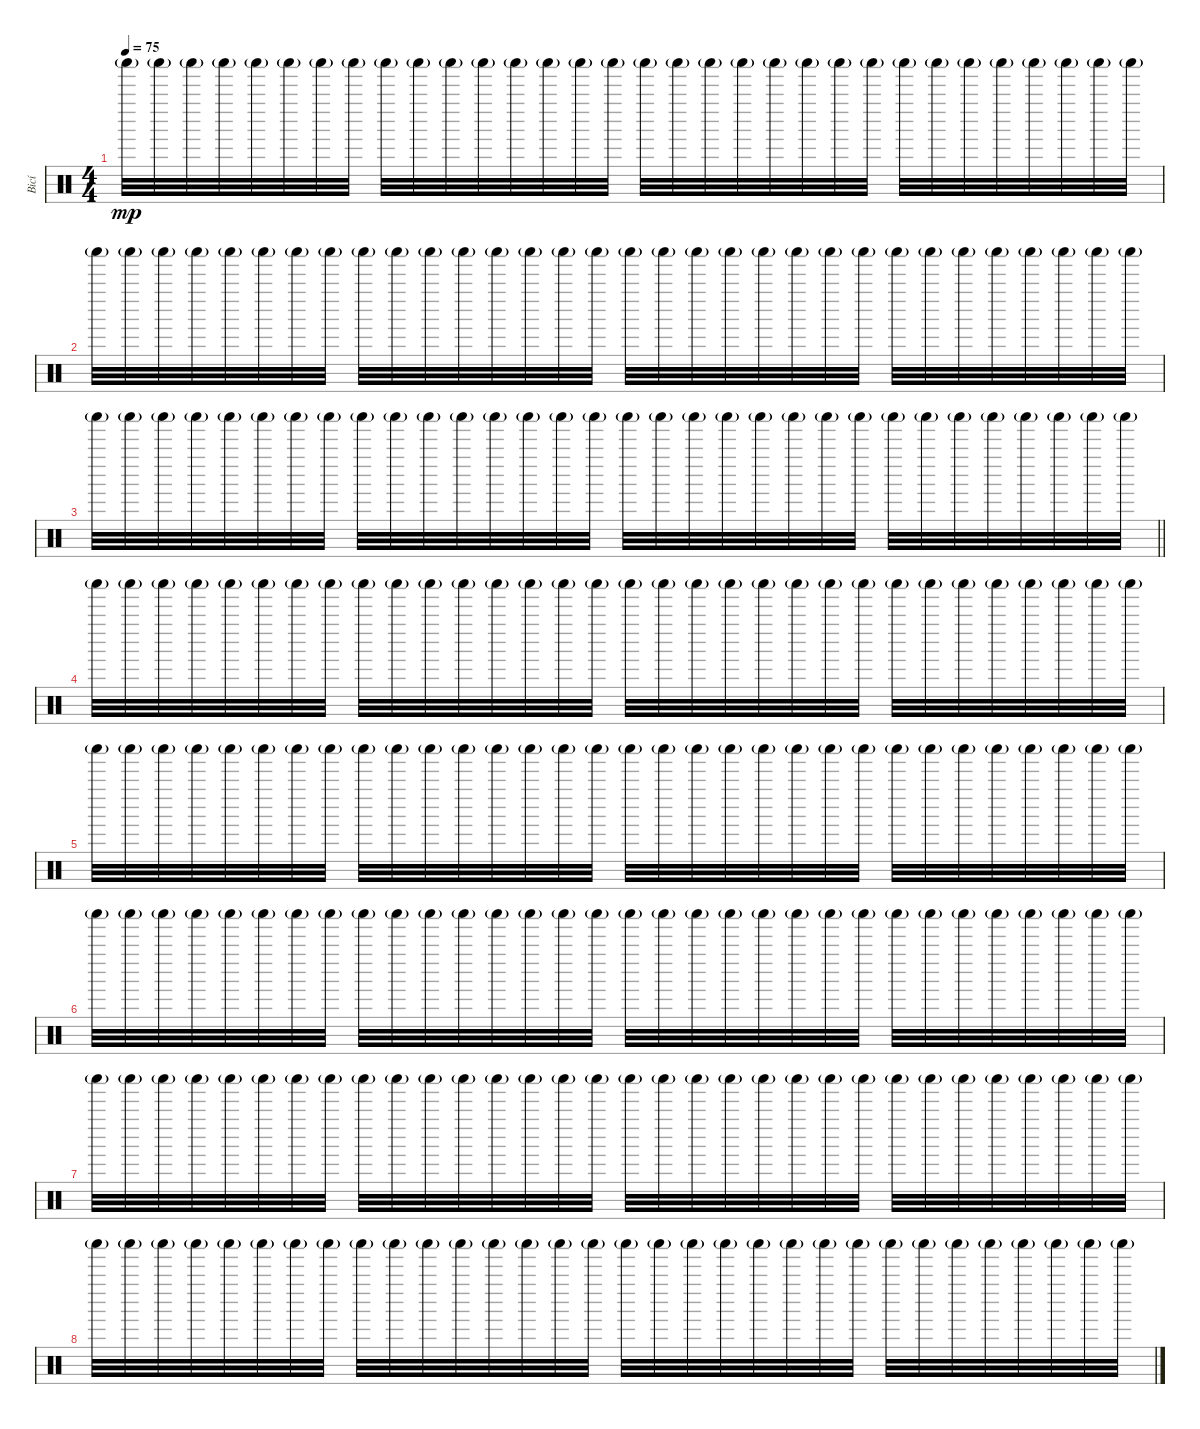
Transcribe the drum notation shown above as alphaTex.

\track ("Bicí" "Bicí") {instrument percussion}
\staff {score}
\articulation defaults
\ts (4 4)
\tempo 75
\clef neutral
\ks c "Shaker (hit)"{g}.32{dy mp} "Shaker (hit)"{g}.32 "Shaker (hit)"{g}.32 "Shaker (hit)"{g}.32 "Shaker (hit)"{g}.32 "Shaker (hit)"{g}.32 "Shaker (hit)"{g}.32 "Shaker (hit)"{g}.32 "Shaker (hit)"{g}.32 "Shaker (hit)"{g}.32 "Shaker (hit)"{g}.32 "Shaker (hit)"{g}.32 "Shaker (hit)"{g}.32 "Shaker (hit)"{g}.32 "Shaker (hit)"{g}.32 "Shaker (hit)"{g}.32 "Shaker (hit)"{g}.32 "Shaker (hit)"{g}.32 "Shaker (hit)"{g}.32 "Shaker (hit)"{g}.32 "Shaker (hit)"{g}.32 "Shaker (hit)"{g}.32 "Shaker (hit)"{g}.32 "Shaker (hit)"{g}.32 "Shaker (hit)"{g}.32 "Shaker (hit)"{g}.32 "Shaker (hit)"{g}.32 "Shaker (hit)"{g}.32 "Shaker (hit)"{g}.32 "Shaker (hit)"{g}.32 "Shaker (hit)"{g}.32 "Shaker (hit)"{g}.32
|
"Shaker (hit)"{g}.32 "Shaker (hit)"{g}.32 "Shaker (hit)"{g}.32 "Shaker (hit)"{g}.32 "Shaker (hit)"{g}.32 "Shaker (hit)"{g}.32 "Shaker (hit)"{g}.32 "Shaker (hit)"{g}.32 "Shaker (hit)"{g}.32 "Shaker (hit)"{g}.32 "Shaker (hit)"{g}.32 "Shaker (hit)"{g}.32 "Shaker (hit)"{g}.32 "Shaker (hit)"{g}.32 "Shaker (hit)"{g}.32 "Shaker (hit)"{g}.32 "Shaker (hit)"{g}.32 "Shaker (hit)"{g}.32 "Shaker (hit)"{g}.32 "Shaker (hit)"{g}.32 "Shaker (hit)"{g}.32 "Shaker (hit)"{g}.32 "Shaker (hit)"{g}.32 "Shaker (hit)"{g}.32 "Shaker (hit)"{g}.32 "Shaker (hit)"{g}.32 "Shaker (hit)"{g}.32 "Shaker (hit)"{g}.32 "Shaker (hit)"{g}.32 "Shaker (hit)"{g}.32 "Shaker (hit)"{g}.32 "Shaker (hit)"{g}.32 |
\barLineRight lightlight "Shaker (hit)"{g}.32 "Shaker (hit)"{g}.32 "Shaker (hit)"{g}.32 "Shaker (hit)"{g}.32 "Shaker (hit)"{g}.32 "Shaker (hit)"{g}.32 "Shaker (hit)"{g}.32 "Shaker (hit)"{g}.32 "Shaker (hit)"{g}.32 "Shaker (hit)"{g}.32 "Shaker (hit)"{g}.32 "Shaker (hit)"{g}.32 "Shaker (hit)"{g}.32 "Shaker (hit)"{g}.32 "Shaker (hit)"{g}.32 "Shaker (hit)"{g}.32 "Shaker (hit)"{g}.32 "Shaker (hit)"{g}.32 "Shaker (hit)"{g}.32 "Shaker (hit)"{g}.32 "Shaker (hit)"{g}.32 "Shaker (hit)"{g}.32 "Shaker (hit)"{g}.32 "Shaker (hit)"{g}.32 "Shaker (hit)"{g}.32 "Shaker (hit)"{g}.32 "Shaker (hit)"{g}.32 "Shaker (hit)"{g}.32 "Shaker (hit)"{g}.32 "Shaker (hit)"{g}.32 "Shaker (hit)"{g}.32 "Shaker (hit)"{g}.32
|
\section ("" "")
"Shaker (hit)"{g}.32 "Shaker (hit)"{g}.32 "Shaker (hit)"{g}.32 "Shaker (hit)"{g}.32 "Shaker (hit)"{g}.32 "Shaker (hit)"{g}.32 "Shaker (hit)"{g}.32 "Shaker (hit)"{g}.32 "Shaker (hit)"{g}.32 "Shaker (hit)"{g}.32 "Shaker (hit)"{g}.32 "Shaker (hit)"{g}.32 "Shaker (hit)"{g}.32 "Shaker (hit)"{g}.32 "Shaker (hit)"{g}.32 "Shaker (hit)"{g}.32 "Shaker (hit)"{g}.32 "Shaker (hit)"{g}.32 "Shaker (hit)"{g}.32 "Shaker (hit)"{g}.32 "Shaker (hit)"{g}.32 "Shaker (hit)"{g}.32 "Shaker (hit)"{g}.32 "Shaker (hit)"{g}.32 "Shaker (hit)"{g}.32 "Shaker (hit)"{g}.32 "Shaker (hit)"{g}.32 "Shaker (hit)"{g}.32 "Shaker (hit)"{g}.32 "Shaker (hit)"{g}.32 "Shaker (hit)"{g}.32 "Shaker (hit)"{g}.32 |
"Shaker (hit)"{g}.32 "Shaker (hit)"{g}.32 "Shaker (hit)"{g}.32 "Shaker (hit)"{g}.32 "Shaker (hit)"{g}.32 "Shaker (hit)"{g}.32 "Shaker (hit)"{g}.32 "Shaker (hit)"{g}.32 "Shaker (hit)"{g}.32 "Shaker (hit)"{g}.32 "Shaker (hit)"{g}.32 "Shaker (hit)"{g}.32 "Shaker (hit)"{g}.32 "Shaker (hit)"{g}.32 "Shaker (hit)"{g}.32 "Shaker (hit)"{g}.32 "Shaker (hit)"{g}.32 "Shaker (hit)"{g}.32 "Shaker (hit)"{g}.32 "Shaker (hit)"{g}.32 "Shaker (hit)"{g}.32 "Shaker (hit)"{g}.32 "Shaker (hit)"{g}.32 "Shaker (hit)"{g}.32 "Shaker (hit)"{g}.32 "Shaker (hit)"{g}.32 "Shaker (hit)"{g}.32 "Shaker (hit)"{g}.32 "Shaker (hit)"{g}.32 "Shaker (hit)"{g}.32 "Shaker (hit)"{g}.32 "Shaker (hit)"{g}.32 |
"Shaker (hit)"{g}.32 "Shaker (hit)"{g}.32 "Shaker (hit)"{g}.32 "Shaker (hit)"{g}.32 "Shaker (hit)"{g}.32 "Shaker (hit)"{g}.32 "Shaker (hit)"{g}.32 "Shaker (hit)"{g}.32 "Shaker (hit)"{g}.32 "Shaker (hit)"{g}.32 "Shaker (hit)"{g}.32 "Shaker (hit)"{g}.32 "Shaker (hit)"{g}.32 "Shaker (hit)"{g}.32 "Shaker (hit)"{g}.32 "Shaker (hit)"{g}.32 "Shaker (hit)"{g}.32 "Shaker (hit)"{g}.32 "Shaker (hit)"{g}.32 "Shaker (hit)"{g}.32 "Shaker (hit)"{g}.32 "Shaker (hit)"{g}.32 "Shaker (hit)"{g}.32 "Shaker (hit)"{g}.32 "Shaker (hit)"{g}.32 "Shaker (hit)"{g}.32 "Shaker (hit)"{g}.32 "Shaker (hit)"{g}.32 "Shaker (hit)"{g}.32 "Shaker (hit)"{g}.32 "Shaker (hit)"{g}.32 "Shaker (hit)"{g}.32 |
"Shaker (hit)"{g}.32 "Shaker (hit)"{g}.32 "Shaker (hit)"{g}.32 "Shaker (hit)"{g}.32 "Shaker (hit)"{g}.32 "Shaker (hit)"{g}.32 "Shaker (hit)"{g}.32 "Shaker (hit)"{g}.32 "Shaker (hit)"{g}.32 "Shaker (hit)"{g}.32 "Shaker (hit)"{g}.32 "Shaker (hit)"{g}.32 "Shaker (hit)"{g}.32 "Shaker (hit)"{g}.32 "Shaker (hit)"{g}.32 "Shaker (hit)"{g}.32 "Shaker (hit)"{g}.32 "Shaker (hit)"{g}.32 "Shaker (hit)"{g}.32 "Shaker (hit)"{g}.32 "Shaker (hit)"{g}.32 "Shaker (hit)"{g}.32 "Shaker (hit)"{g}.32 "Shaker (hit)"{g}.32 "Shaker (hit)"{g}.32 "Shaker (hit)"{g}.32 "Shaker (hit)"{g}.32 "Shaker (hit)"{g}.32 "Shaker (hit)"{g}.32 "Shaker (hit)"{g}.32 "Shaker (hit)"{g}.32 "Shaker (hit)"{g}.32 |
"Shaker (hit)"{g}.32 "Shaker (hit)"{g}.32 "Shaker (hit)"{g}.32 "Shaker (hit)"{g}.32 "Shaker (hit)"{g}.32 "Shaker (hit)"{g}.32 "Shaker (hit)"{g}.32 "Shaker (hit)"{g}.32 "Shaker (hit)"{g}.32 "Shaker (hit)"{g}.32 "Shaker (hit)"{g}.32 "Shaker (hit)"{g}.32 "Shaker (hit)"{g}.32 "Shaker (hit)"{g}.32 "Shaker (hit)"{g}.32 "Shaker (hit)"{g}.32 "Shaker (hit)"{g}.32 "Shaker (hit)"{g}.32 "Shaker (hit)"{g}.32 "Shaker (hit)"{g}.32 "Shaker (hit)"{g}.32 "Shaker (hit)"{g}.32 "Shaker (hit)"{g}.32 "Shaker (hit)"{g}.32 "Shaker (hit)"{g}.32 "Shaker (hit)"{g}.32 "Shaker (hit)"{g}.32 "Shaker (hit)"{g}.32 "Shaker (hit)"{g}.32 "Shaker (hit)"{g}.32 "Shaker (hit)"{g}.32 "Shaker (hit)"{g}.32
